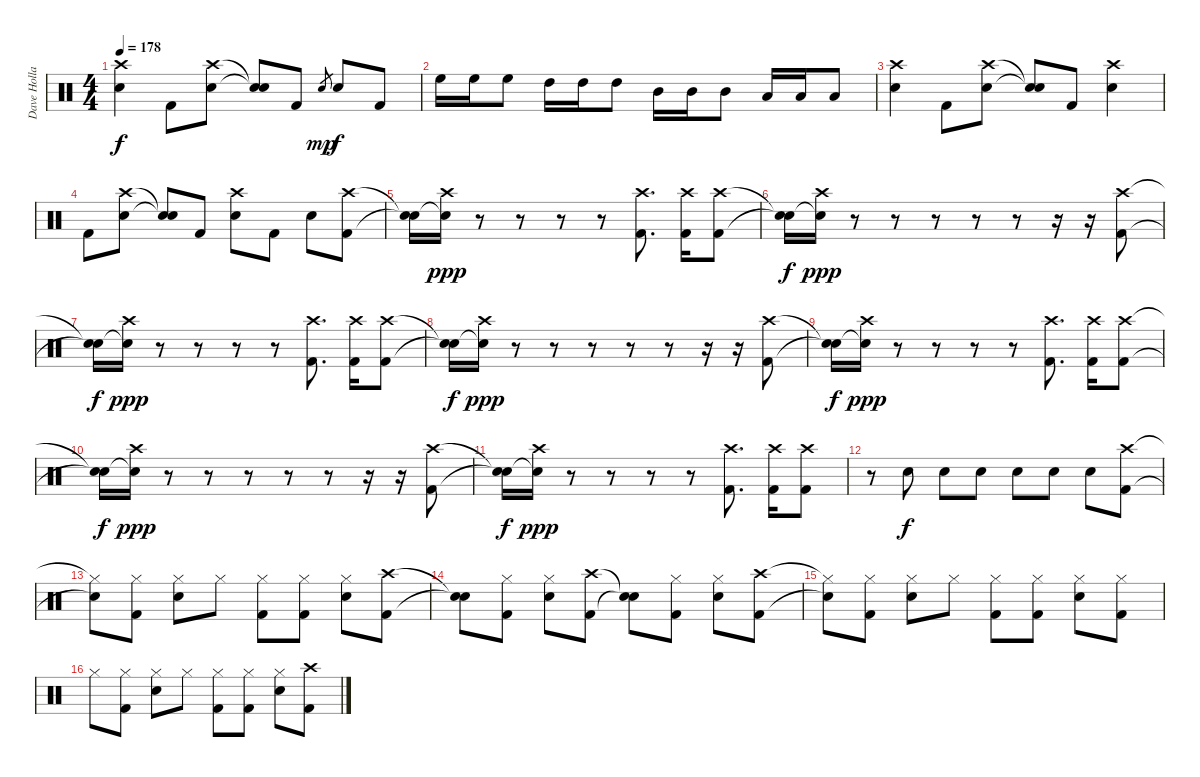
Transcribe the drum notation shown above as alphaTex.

\track ("Dave Holland" "Dave Holla") {instrument percussion}
\staff {score}
\articulation defaults
\ts (4 4)
\tempo 178
\clef neutral
\ks c
("Crash high (hit)" "Snare (hit) 2").4{dy f} "Kick (hit) 2".8 ("Crash high (hit)" "Snare (hit) 2").8 ("Snare (hit)"{t} "Snare (hit)"{t}).8 "Kick (hit) 2".8 "Snare (hit) 2".8{gr dy mp} "Snare (hit) 2".8{dy f} "Kick (hit) 2".8 |
"High Floor Tom (hit)".16 "High Floor Tom (hit)".16 "High Floor Tom (hit)".8 "High Tom (hit)".16 "High Tom (hit)".16 "High Tom (hit)".8 "Mid Tom (hit)".16 "Mid Tom (hit)".16 "Mid Tom (hit)".8 "Low Tom (hit)".16 "Low Tom (hit)".16 "Low Tom (hit)".8 |
("Crash high (hit)" "Snare (hit) 2").4 "Kick (hit) 2".8 ("Crash high (hit)" "Snare (hit) 2").8 ("Snare (hit)"{t} "Snare (hit)"{t}).8 "Kick (hit) 2".8 ("Crash high (hit)" "Snare (hit) 2").4 |
"Kick (hit) 2".8 ("Crash high (hit)" "Snare (hit) 2").8 ("Snare (hit)"{t} "Snare (hit)"{t}).8 "Kick (hit) 2".8 ("Crash high (hit)" "Snare (hit) 2").8 "Kick (hit) 2".8 "Snare (hit) 2".8 ("Crash high (hit)" "Kick (hit) 2").8 |
("Snare (hit)"{t} "Snare (hit)"{t}).16 ("Snare (hit)"{t} "Crash high (hit)").16{dy ppp} r.8 r.8 r.8 r.8 ("Kick (hit) 2" "Crash high (hit)").8{d} ("Kick (hit) 2" "Crash high (hit)").16 ("Kick (hit) 2" "Crash high (hit)").8 |
("Snare (hit)"{t} "Snare (hit)"{t}).16{dy f} ("Snare (hit)"{t} "Crash high (hit)").16{dy ppp} r.8 r.8 r.8 r.8 r.8 r.16 r.16 ("Kick (hit) 2" "Crash high (hit)").8 |
("Snare (hit)"{t} "Snare (hit)"{t}).16{dy f} ("Snare (hit)"{t} "Crash high (hit)").16{dy ppp} r.8 r.8 r.8 r.8 ("Kick (hit) 2" "Crash high (hit)").8{d} ("Kick (hit) 2" "Crash high (hit)").16 ("Kick (hit) 2" "Crash high (hit)").8 |
("Snare (hit)"{t} "Snare (hit)"{t}).16{dy f} ("Snare (hit)"{t} "Crash high (hit)").16{dy ppp} r.8 r.8 r.8 r.8 r.8 r.16 r.16 ("Kick (hit) 2" "Crash high (hit)").8 |
("Snare (hit)"{t} "Snare (hit)"{t}).16{dy f} ("Snare (hit)"{t} "Crash high (hit)").16{dy ppp} r.8 r.8 r.8 r.8 ("Kick (hit) 2" "Crash high (hit)").8{d} ("Kick (hit) 2" "Crash high (hit)").16 ("Kick (hit) 2" "Crash high (hit)").8 |
("Snare (hit)"{t} "Snare (hit)"{t}).16{dy f} ("Snare (hit)"{t} "Crash high (hit)").16{dy ppp} r.8 r.8 r.8 r.8 r.8 r.16 r.16 ("Kick (hit) 2" "Crash high (hit)").8 |
("Snare (hit)"{t} "Snare (hit)"{t}).16{dy f} ("Snare (hit)"{t} "Crash high (hit)").16{dy ppp} r.8 r.8 r.8 r.8 ("Kick (hit) 2" "Crash high (hit)").8{d} ("Kick (hit) 2" "Crash high (hit)").16 ("Kick (hit) 2" "Crash high (hit)").8 |
r.8 "Snare (hit) 2".8{dy f} "Snare (hit) 2".8 "Snare (hit) 2".8 "Snare (hit) 2".8 "Snare (hit) 2".8 "Snare (hit) 2".8 ("Crash high (hit)" "Kick (hit) 2").8 |
("Hi-Hat (closed)"{t} "Snare (hit)"{t}).8 ("Hi-Hat (closed)" "Kick (hit) 2").8 ("Hi-Hat (closed)" "Snare (hit) 2").8 "Hi-Hat (closed)".8 ("Hi-Hat (closed)" "Kick (hit) 2").8 ("Hi-Hat (closed)" "Kick (hit) 2").8 ("Hi-Hat (closed)" "Snare (hit) 2").8 ("Crash high (hit)" "Kick (hit) 2").8 |
("Snare (hit)"{t} "Snare (hit)"{t}).8 ("Hi-Hat (closed)" "Kick (hit) 2").8 ("Hi-Hat (closed)" "Snare (hit) 2").8 ("Crash high (hit)" "Kick (hit) 2").8 ("Snare (hit)"{t} "Snare (hit)"{t}).8 ("Hi-Hat (closed)" "Kick (hit) 2").8 ("Hi-Hat (closed)" "Snare (hit) 2").8 ("Crash high (hit)" "Kick (hit) 2").8 |
("Hi-Hat (closed)"{t} "Snare (hit)"{t}).8 ("Hi-Hat (closed)" "Kick (hit) 2").8 ("Hi-Hat (closed)" "Snare (hit) 2").8 "Hi-Hat (closed)".8 ("Hi-Hat (closed)" "Kick (hit) 2").8 ("Hi-Hat (closed)" "Kick (hit) 2").8 ("Hi-Hat (closed)" "Snare (hit) 2").8 ("Hi-Hat (closed)" "Kick (hit) 2").8 |
"Hi-Hat (closed)".8 ("Hi-Hat (closed)" "Kick (hit) 2").8 ("Hi-Hat (closed)" "Snare (hit) 2").8 "Hi-Hat (closed)".8 ("Hi-Hat (closed)" "Kick (hit) 2").8 ("Hi-Hat (closed)" "Kick (hit) 2").8 ("Hi-Hat (closed)" "Snare (hit) 2").8 ("Crash high (hit)" "Kick (hit) 2").8
